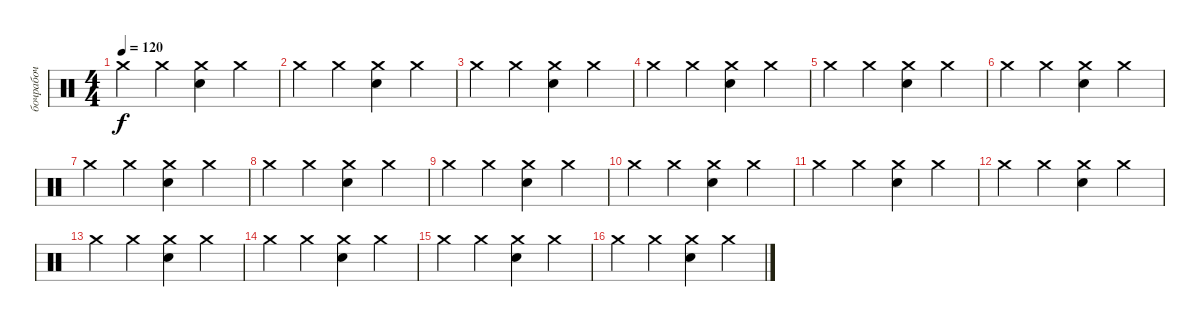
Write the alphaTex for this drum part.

\track ("бочрабоч" "бочрабоч") {instrument percussion}
\staff {score}
\articulation defaults
\ts (4 4)
\tempo 120
\clef neutral
\ks c "Crash medium (hit)".4{dy f} "Crash medium (hit)".4
("Crash medium (hit)" "Snare (hit) 2").4 "Crash medium (hit)".4 |
"Crash medium (hit)".4 "Crash medium (hit)".4 ("Crash medium (hit)" "Snare (hit) 2").4 "Crash medium (hit)".4 |
"Crash medium (hit)".4 "Crash medium (hit)".4 ("Crash medium (hit)" "Snare (hit) 2").4 "Crash medium (hit)".4 |
"Crash medium (hit)".4 "Crash medium (hit)".4 ("Crash medium (hit)" "Snare (hit) 2").4 "Crash medium (hit)".4 |
"Crash medium (hit)".4 "Crash medium (hit)".4 ("Crash medium (hit)" "Snare (hit) 2").4 "Crash medium (hit)".4 |
"Crash medium (hit)".4 "Crash medium (hit)".4 ("Crash medium (hit)" "Snare (hit) 2").4 "Crash medium (hit)".4 |
"Crash medium (hit)".4 "Crash medium (hit)".4 ("Crash medium (hit)" "Snare (hit) 2").4 "Crash medium (hit)".4 |
"Crash medium (hit)".4 "Crash medium (hit)".4 ("Crash medium (hit)" "Snare (hit) 2").4 "Crash medium (hit)".4 |
"Crash medium (hit)".4 "Crash medium (hit)".4 ("Crash medium (hit)" "Snare (hit) 2").4 "Crash medium (hit)".4 |
"Crash medium (hit)".4 "Crash medium (hit)".4 ("Crash medium (hit)" "Snare (hit) 2").4 "Crash medium (hit)".4 |
"Crash medium (hit)".4 "Crash medium (hit)".4 ("Crash medium (hit)" "Snare (hit) 2").4 "Crash medium (hit)".4 |
"Crash medium (hit)".4 "Crash medium (hit)".4 ("Crash medium (hit)" "Snare (hit) 2").4 "Crash medium (hit)".4 |
"Crash medium (hit)".4 "Crash medium (hit)".4 ("Crash medium (hit)" "Snare (hit) 2").4 "Crash medium (hit)".4 |
"Crash medium (hit)".4 "Crash medium (hit)".4 ("Crash medium (hit)" "Snare (hit) 2").4 "Crash medium (hit)".4 |
"Crash medium (hit)".4 "Crash medium (hit)".4 ("Crash medium (hit)" "Snare (hit) 2").4 "Crash medium (hit)".4 |
"Crash medium (hit)".4 "Crash medium (hit)".4 ("Crash medium (hit)" "Snare (hit) 2").4 "Crash medium (hit)".4
